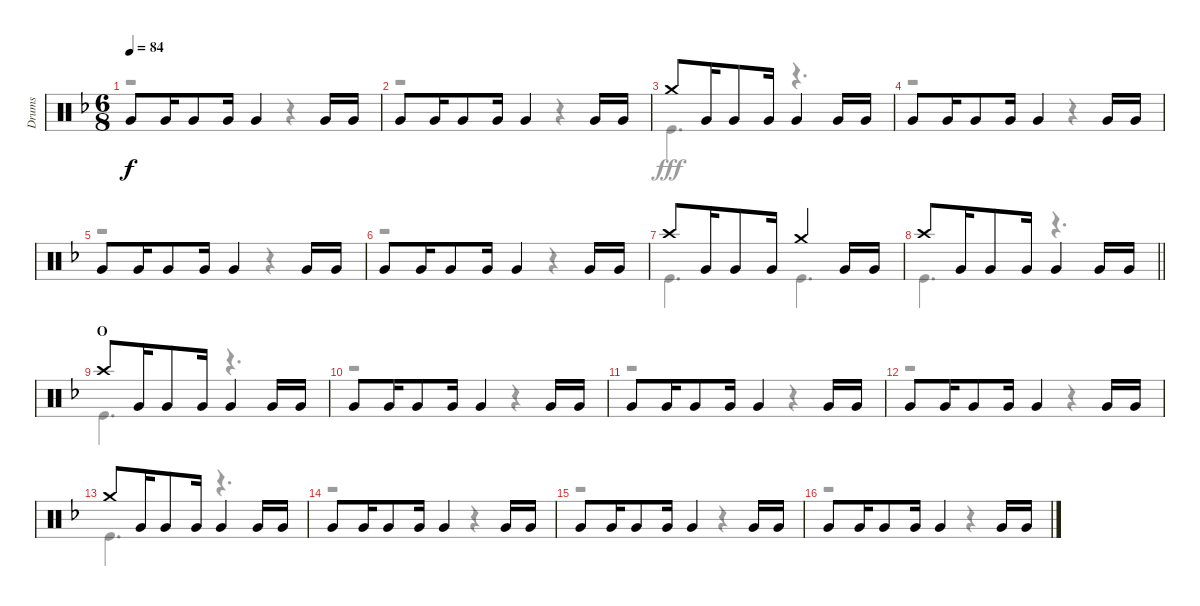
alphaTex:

\track ("Drums" "Drums") {instrument percussion}
\staff {score}
\articulation defaults
\voice
\ts (6 8)
\tempo 84
\clef neutral
\ks f "Very Low Tom (hit)".8{dy f} "Very Low Tom (hit)".16 "Very Low Tom (hit)".8 "Very Low Tom (hit)".16 "Very Low Tom (hit)".4 "Very Low Tom (hit)".16 "Very Low Tom (hit)".16
|
"Very Low Tom (hit)".8 "Very Low Tom (hit)".16 "Very Low Tom (hit)".8 "Very Low Tom (hit)".16 "Very Low Tom (hit)".4 "Very Low Tom (hit)".16 "Very Low Tom (hit)".16 |
"Crash medium (hit)".8 "Very Low Tom (hit)".16 "Very Low Tom (hit)".8 "Very Low Tom (hit)".16 "Very Low Tom (hit)".4 "Very Low Tom (hit)".16 "Very Low Tom (hit)".16 |
"Very Low Tom (hit)".8 "Very Low Tom (hit)".16 "Very Low Tom (hit)".8 "Very Low Tom (hit)".16 "Very Low Tom (hit)".4 "Very Low Tom (hit)".16 "Very Low Tom (hit)".16 |
"Very Low Tom (hit)".8 "Very Low Tom (hit)".16 "Very Low Tom (hit)".8 "Very Low Tom (hit)".16 "Very Low Tom (hit)".4 "Very Low Tom (hit)".16 "Very Low Tom (hit)".16 |
"Very Low Tom (hit)".8 "Very Low Tom (hit)".16 "Very Low Tom (hit)".8 "Very Low Tom (hit)".16 "Very Low Tom (hit)".4 "Very Low Tom (hit)".16 "Very Low Tom (hit)".16 |
"Crash high (hit)".8 "Very Low Tom (hit)".16 "Very Low Tom (hit)".8 "Very Low Tom (hit)".16 "Crash medium (hit)".4 "Very Low Tom (hit)".16 "Very Low Tom (hit)".16 |
\barLineRight lightlight "Crash high (hit)".8 "Very Low Tom (hit)".16 "Very Low Tom (hit)".8 "Very Low Tom (hit)".16 "Very Low Tom (hit)".4 "Very Low Tom (hit)".16 "Very Low Tom (hit)".16
|
\section ("" "O")
"Crash high (hit)".8 "Very Low Tom (hit)".16 "Very Low Tom (hit)".8 "Very Low Tom (hit)".16 "Very Low Tom (hit)".4 "Very Low Tom (hit)".16 "Very Low Tom (hit)".16 |
"Very Low Tom (hit)".8 "Very Low Tom (hit)".16 "Very Low Tom (hit)".8 "Very Low Tom (hit)".16 "Very Low Tom (hit)".4 "Very Low Tom (hit)".16 "Very Low Tom (hit)".16 |
"Very Low Tom (hit)".8 "Very Low Tom (hit)".16 "Very Low Tom (hit)".8 "Very Low Tom (hit)".16 "Very Low Tom (hit)".4 "Very Low Tom (hit)".16 "Very Low Tom (hit)".16 |
"Very Low Tom (hit)".8 "Very Low Tom (hit)".16 "Very Low Tom (hit)".8 "Very Low Tom (hit)".16 "Very Low Tom (hit)".4 "Very Low Tom (hit)".16 "Very Low Tom (hit)".16 |
"Crash medium (hit)".8 "Very Low Tom (hit)".16 "Very Low Tom (hit)".8 "Very Low Tom (hit)".16 "Very Low Tom (hit)".4 "Very Low Tom (hit)".16 "Very Low Tom (hit)".16 |
"Very Low Tom (hit)".8 "Very Low Tom (hit)".16 "Very Low Tom (hit)".8 "Very Low Tom (hit)".16 "Very Low Tom (hit)".4 "Very Low Tom (hit)".16 "Very Low Tom (hit)".16 |
"Very Low Tom (hit)".8 "Very Low Tom (hit)".16 "Very Low Tom (hit)".8 "Very Low Tom (hit)".16 "Very Low Tom (hit)".4 "Very Low Tom (hit)".16 "Very Low Tom (hit)".16 |
"Very Low Tom (hit)".8 "Very Low Tom (hit)".16 "Very Low Tom (hit)".8 "Very Low Tom (hit)".16 "Very Low Tom (hit)".4 "Very Low Tom (hit)".16 "Very Low Tom (hit)".16
\voice
\clef neutral
\ottava regular
\simile none
\ks f
r.2{dy fff} r.4 |
r.2 r.4 |
"Kick (hit)".4{d} r.4{d} |
r.2 r.4 |
r.2 r.4 |
r.2 r.4 |
"Kick (hit)".4{d} "Kick (hit)".4{d} |
\barLineRight lightlight "Kick (hit)".4{d}
r.4{d} |
"Kick (hit)".4{d} r.4{d} |
r.2 r.4 |
r.2 r.4 |
r.2 r.4 |
"Kick (hit)".4{d} r.4{d} |
r.2 r.4 |
r.2 r.4 |
r.2 r.4
